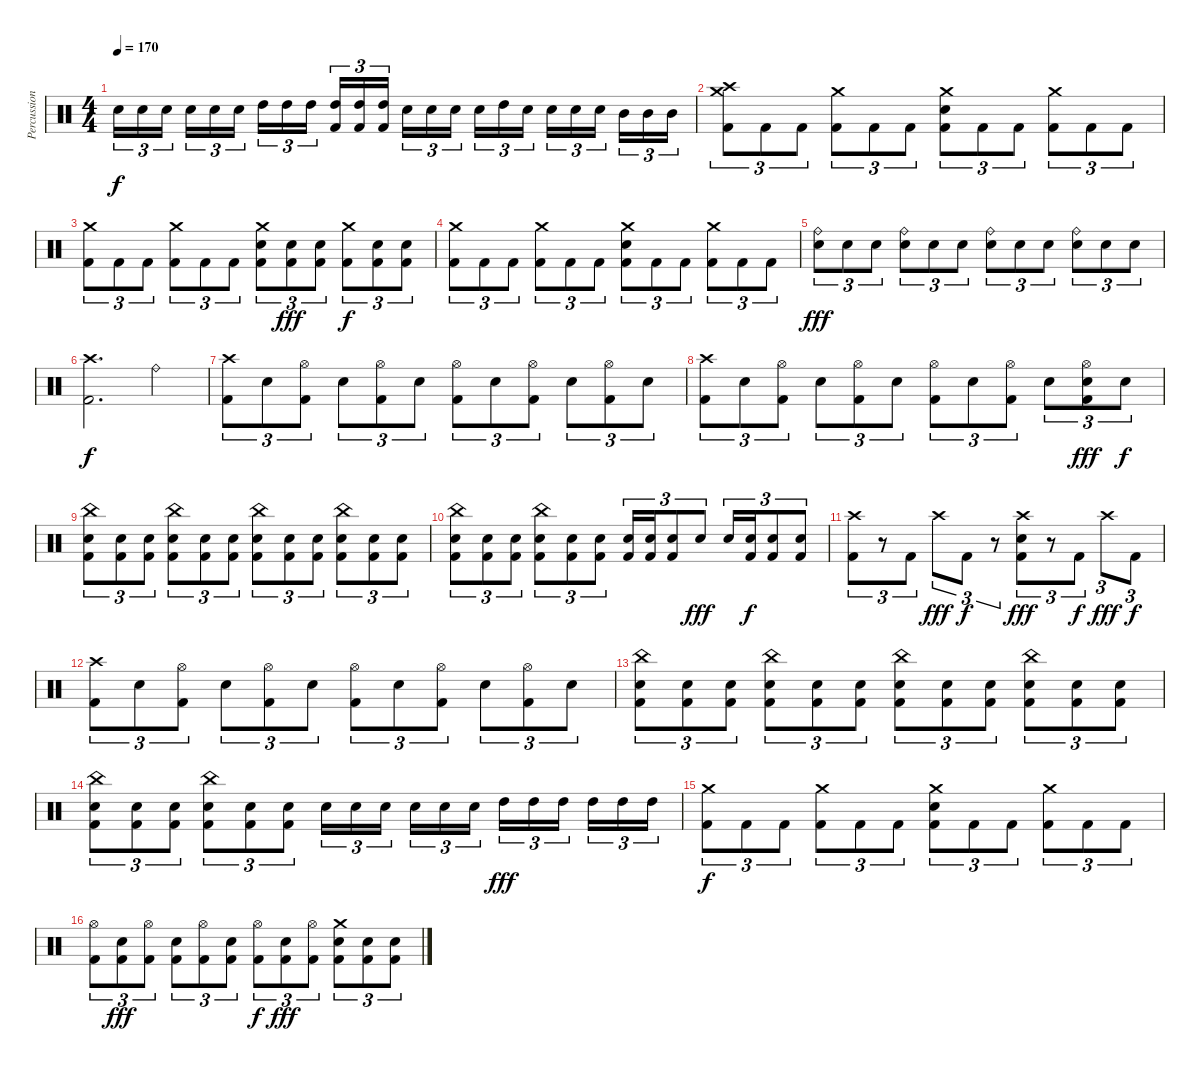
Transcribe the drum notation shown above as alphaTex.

\track ("Percussion" "Percussion") {instrument percussion}
\staff {score}
\articulation defaults
\ts (4 4)
\tempo 170
\clef neutral
\ks c "Electric Snare (hit)".16{tu (3 2) dy f} "Electric Snare (hit)".16{tu (3 2)} "Electric Snare (hit)".16{tu (3 2) beam splitsecondary} "Electric Snare (hit)".16{tu (3 2)} "Electric Snare (hit)".16{tu (3 2)} "Electric Snare (hit)".16{tu (3 2)} "High Tom (hit)".16{tu (3 2)} "High Tom (hit)".16{tu (3 2)} "High Tom (hit)".16{tu (3 2) beam splitsecondary}
("High Tom (hit)" "Kick (hit) 2").16{tu (3 2)} ("High Tom (hit)" "Kick (hit) 2").16{tu (3 2)} ("High Tom (hit)" "Kick (hit) 2").16{tu (3 2)} "Electric Snare (hit)".16{tu (3 2)} "Electric Snare (hit)".16{tu (3 2)} "Electric Snare (hit)".16{tu (3 2) beam splitsecondary} "Electric Snare (hit)".16{tu (3 2)} "High Tom (hit)".16{tu (3 2)} "Electric Snare (hit)".16{tu (3 2)} "Electric Snare (hit)".16{tu (3 2)} "Electric Snare (hit)".16{tu (3 2)} "Electric Snare (hit)".16{tu (3 2) beam splitsecondary} "Mid Tom (hit)".16{tu (3 2)} "Mid Tom (hit)".16{tu (3 2)} "Mid Tom (hit)".16{tu (3 2)} |
("Crash high (hit)" "Crash medium (hit)" "Kick (hit) 2").8{tu (3 2)} "Kick (hit) 2".8{tu (3 2)} "Kick (hit) 2".8{tu (3 2)} ("Crash medium (hit)" "Kick (hit) 2").8{tu (3 2)} "Kick (hit) 2".8{tu (3 2)} "Kick (hit) 2".8{tu (3 2)} ("Crash medium (hit)" "Electric Snare (hit)" "Kick (hit) 2").8{tu (3 2)} "Kick (hit) 2".8{tu (3 2)} "Kick (hit) 2".8{tu (3 2)} ("Crash medium (hit)" "Kick (hit) 2").8{tu (3 2)} "Kick (hit) 2".8{tu (3 2)} "Kick (hit) 2".8{tu (3 2)} |
("Crash medium (hit)" "Kick (hit) 2").8{tu (3 2)} "Kick (hit) 2".8{tu (3 2)} "Kick (hit) 2".8{tu (3 2)} ("Crash medium (hit)" "Kick (hit) 2").8{tu (3 2)} "Kick (hit) 2".8{tu (3 2)} "Kick (hit) 2".8{tu (3 2)} ("Crash medium (hit)" "Electric Snare (hit)" "Kick (hit) 2").8{tu (3 2)} ("Electric Snare (hit)" "Kick (hit) 2").8{tu (3 2) dy fff} ("Electric Snare (hit)" "Kick (hit) 2").8{tu (3 2)} ("Crash medium (hit)" "Kick (hit) 2").8{tu (3 2) dy f} ("Electric Snare (hit)" "Kick (hit) 2").8{tu (3 2)} ("Electric Snare (hit)" "Kick (hit) 2").8{tu (3 2)} |
("Crash medium (hit)" "Kick (hit) 2").8{tu (3 2)} "Kick (hit) 2".8{tu (3 2)} "Kick (hit) 2".8{tu (3 2)} ("Crash medium (hit)" "Kick (hit) 2").8{tu (3 2)} "Kick (hit) 2".8{tu (3 2)} "Kick (hit) 2".8{tu (3 2)} ("Crash medium (hit)" "Electric Snare (hit)" "Kick (hit) 2").8{tu (3 2)} "Kick (hit) 2".8{tu (3 2)} "Kick (hit) 2".8{tu (3 2)} ("Crash medium (hit)" "Kick (hit) 2").8{tu (3 2)} "Kick (hit) 2".8{tu (3 2)} "Kick (hit) 2".8{tu (3 2)} |
("Ride (bell)" "Electric Snare (hit)").8{tu (3 2) dy fff} "Electric Snare (hit)".8{tu (3 2)} "Electric Snare (hit)".8{tu (3 2)} ("Ride (bell)" "Electric Snare (hit)").8{tu (3 2)} "Electric Snare (hit)".8{tu (3 2)} "Electric Snare (hit)".8{tu (3 2)} ("Ride (bell)" "Electric Snare (hit)").8{tu (3 2)} "Electric Snare (hit)".8{tu (3 2)} "Electric Snare (hit)".8{tu (3 2)} ("Ride (bell)" "Electric Snare (hit)").8{tu (3 2)} "Electric Snare (hit)".8{tu (3 2)} "Electric Snare (hit)".8{tu (3 2)} |
("Crash high (hit)" "Kick (hit) 2").2{d dy f} "Ride (bell)".4 |
("Crash high (hit)" "Kick (hit) 2").8{tu (3 2)} "Electric Snare (hit)".8{tu (3 2)} ("Hi-Hat (open)" "Kick (hit) 2").8{tu (3 2)} "Electric Snare (hit)".8{tu (3 2)} ("Hi-Hat (open)" "Kick (hit) 2").8{tu (3 2)} "Electric Snare (hit)".8{tu (3 2)} ("Hi-Hat (open)" "Kick (hit) 2").8{tu (3 2)} "Electric Snare (hit)".8{tu (3 2)} ("Hi-Hat (open)" "Kick (hit) 2").8{tu (3 2)} "Electric Snare (hit)".8{tu (3 2)} ("Hi-Hat (open)" "Kick (hit) 2").8{tu (3 2)} "Electric Snare (hit)".8{tu (3 2)} |
("Crash high (hit)" "Kick (hit) 2").8{tu (3 2)} "Electric Snare (hit)".8{tu (3 2)} ("Hi-Hat (open)" "Kick (hit) 2").8{tu (3 2)} "Electric Snare (hit)".8{tu (3 2)} ("Hi-Hat (open)" "Kick (hit) 2").8{tu (3 2)} "Electric Snare (hit)".8{tu (3 2)} ("Hi-Hat (open)" "Kick (hit) 2").8{tu (3 2)} "Electric Snare (hit)".8{tu (3 2)} ("Hi-Hat (open)" "Kick (hit) 2").8{tu (3 2)} "Electric Snare (hit)".8{tu (3 2)} ("Hi-Hat (open)" "Electric Snare (hit)" "Kick (hit) 2").8{tu (3 2) dy fff} "Electric Snare (hit)".8{tu (3 2) dy f} |
("China (hit)" "Electric Snare (hit)" "Kick (hit) 2").8{tu (3 2)} ("Electric Snare (hit)" "Kick (hit) 2").8{tu (3 2)} ("Electric Snare (hit)" "Kick (hit) 2").8{tu (3 2)} ("China (hit)" "Electric Snare (hit)" "Kick (hit) 2").8{tu (3 2)} ("Electric Snare (hit)" "Kick (hit) 2").8{tu (3 2)} ("Electric Snare (hit)" "Kick (hit) 2").8{tu (3 2)} ("China (hit)" "Electric Snare (hit)" "Kick (hit) 2").8{tu (3 2)} ("Electric Snare (hit)" "Kick (hit) 2").8{tu (3 2)} ("Electric Snare (hit)" "Kick (hit) 2").8{tu (3 2)} ("China (hit)" "Electric Snare (hit)" "Kick (hit) 2").8{tu (3 2)} ("Electric Snare (hit)" "Kick (hit) 2").8{tu (3 2)} ("Electric Snare (hit)" "Kick (hit) 2").8{tu (3 2)} |
("China (hit)" "Electric Snare (hit)" "Kick (hit) 2").8{tu (3 2)} ("Electric Snare (hit)" "Kick (hit) 2").8{tu (3 2)} ("Electric Snare (hit)" "Kick (hit) 2").8{tu (3 2)} ("China (hit)" "Electric Snare (hit)" "Kick (hit) 2").8{tu (3 2)} ("Electric Snare (hit)" "Kick (hit) 2").8{tu (3 2)} ("Electric Snare (hit)" "Kick (hit) 2").8{tu (3 2)} ("Electric Snare (hit)" "Kick (hit) 2").16{tu (3 2)} ("Electric Snare (hit)" "Kick (hit) 2").16{tu (3 2)} ("Electric Snare (hit)" "Kick (hit) 2").8{tu (3 2)} "Electric Snare (hit)".8{tu (3 2) dy fff} "Electric Snare (hit)".16{tu (3 2)} ("Electric Snare (hit)" "Kick (hit) 2").16{tu (3 2) dy f} ("Electric Snare (hit)" "Kick (hit) 2").8{tu (3 2)} ("Electric Snare (hit)" "Kick (hit) 2").8{tu (3 2)} |
("Crash high (hit)" "Kick (hit) 2").8{tu (3 2)} r.8{tu (3 2)} "Kick (hit) 2".8{tu (3 2)} "Crash high (hit)".8{tu (3 2) dy fff} "Kick (hit) 2".8{tu (3 2) dy f} r.8{tu (3 2)} ("Crash high (hit)" "Electric Snare (hit)" "Kick (hit) 2").8{tu (3 2) dy fff} r.8{tu (3 2)} "Kick (hit) 2".8{tu (3 2) dy f} "Crash high (hit)".8{tu (3 2) dy fff} "Kick (hit) 2".8{tu (3 2) dy f} |
("Crash high (hit)" "Kick (hit) 2").8{tu (3 2)} "Electric Snare (hit)".8{tu (3 2)} ("Hi-Hat (open)" "Kick (hit) 2").8{tu (3 2)} "Electric Snare (hit)".8{tu (3 2)} ("Hi-Hat (open)" "Kick (hit) 2").8{tu (3 2)} "Electric Snare (hit)".8{tu (3 2)} ("Hi-Hat (open)" "Kick (hit) 2").8{tu (3 2)} "Electric Snare (hit)".8{tu (3 2)} ("Hi-Hat (open)" "Kick (hit) 2").8{tu (3 2)} "Electric Snare (hit)".8{tu (3 2)} ("Hi-Hat (open)" "Kick (hit) 2").8{tu (3 2)} "Electric Snare (hit)".8{tu (3 2)} |
("China (hit)" "Electric Snare (hit)" "Kick (hit) 2").8{tu (3 2)} ("Electric Snare (hit)" "Kick (hit) 2").8{tu (3 2)} ("Electric Snare (hit)" "Kick (hit) 2").8{tu (3 2)} ("China (hit)" "Electric Snare (hit)" "Kick (hit) 2").8{tu (3 2)} ("Electric Snare (hit)" "Kick (hit) 2").8{tu (3 2)} ("Electric Snare (hit)" "Kick (hit) 2").8{tu (3 2)} ("China (hit)" "Electric Snare (hit)" "Kick (hit) 2").8{tu (3 2)} ("Electric Snare (hit)" "Kick (hit) 2").8{tu (3 2)} ("Electric Snare (hit)" "Kick (hit) 2").8{tu (3 2)} ("China (hit)" "Electric Snare (hit)" "Kick (hit) 2").8{tu (3 2)} ("Electric Snare (hit)" "Kick (hit) 2").8{tu (3 2)} ("Electric Snare (hit)" "Kick (hit) 2").8{tu (3 2)} |
("China (hit)" "Electric Snare (hit)" "Kick (hit) 2").8{tu (3 2)} ("Electric Snare (hit)" "Kick (hit) 2").8{tu (3 2)} ("Electric Snare (hit)" "Kick (hit) 2").8{tu (3 2)} ("China (hit)" "Electric Snare (hit)" "Kick (hit) 2").8{tu (3 2)} ("Electric Snare (hit)" "Kick (hit) 2").8{tu (3 2)} ("Electric Snare (hit)" "Kick (hit) 2").8{tu (3 2)} "Electric Snare (hit)".16{tu (3 2)} "Electric Snare (hit)".16{tu (3 2)} "Electric Snare (hit)".16{tu (3 2) beam splitsecondary} "Electric Snare (hit)".16{tu (3 2)} "Electric Snare (hit)".16{tu (3 2)} "Electric Snare (hit)".16{tu (3 2)} "High Tom (hit)".16{tu (3 2) dy fff} "High Tom (hit)".16{tu (3 2)} "High Tom (hit)".16{tu (3 2) beam splitsecondary} "High Tom (hit)".16{tu (3 2)} "High Tom (hit)".16{tu (3 2)} "High Tom (hit)".16{tu (3 2)} |
("Crash medium (hit)" "Kick (hit) 2").8{tu (3 2) dy f} "Kick (hit) 2".8{tu (3 2)} "Kick (hit) 2".8{tu (3 2)} ("Crash medium (hit)" "Kick (hit) 2").8{tu (3 2)} "Kick (hit) 2".8{tu (3 2)} "Kick (hit) 2".8{tu (3 2)} ("Crash medium (hit)" "Electric Snare (hit)" "Kick (hit) 2").8{tu (3 2)} "Kick (hit) 2".8{tu (3 2)} "Kick (hit) 2".8{tu (3 2)} ("Crash medium (hit)" "Kick (hit) 2").8{tu (3 2)} "Kick (hit) 2".8{tu (3 2)} "Kick (hit) 2".8{tu (3 2)} |
("Hi-Hat (open)" "Kick (hit) 2").8{tu (3 2)} ("Electric Snare (hit)" "Kick (hit) 2").8{tu (3 2) dy fff} ("Hi-Hat (open)" "Kick (hit) 2").8{tu (3 2)} ("Electric Snare (hit)" "Kick (hit) 2").8{tu (3 2)} ("Hi-Hat (open)" "Kick (hit) 2").8{tu (3 2)} ("Electric Snare (hit)" "Kick (hit) 2").8{tu (3 2)} ("Hi-Hat (open)" "Kick (hit) 2").8{tu (3 2) dy f} ("Electric Snare (hit)" "Kick (hit) 2").8{tu (3 2) dy fff} ("Hi-Hat (open)" "Kick (hit) 2").8{tu (3 2)} ("Crash medium (hit)" "Electric Snare (hit)" "Kick (hit) 2").8{tu (3 2)} ("Electric Snare (hit)" "Kick (hit) 2").8{tu (3 2)} ("Electric Snare (hit)" "Kick (hit) 2").8{tu (3 2)}
